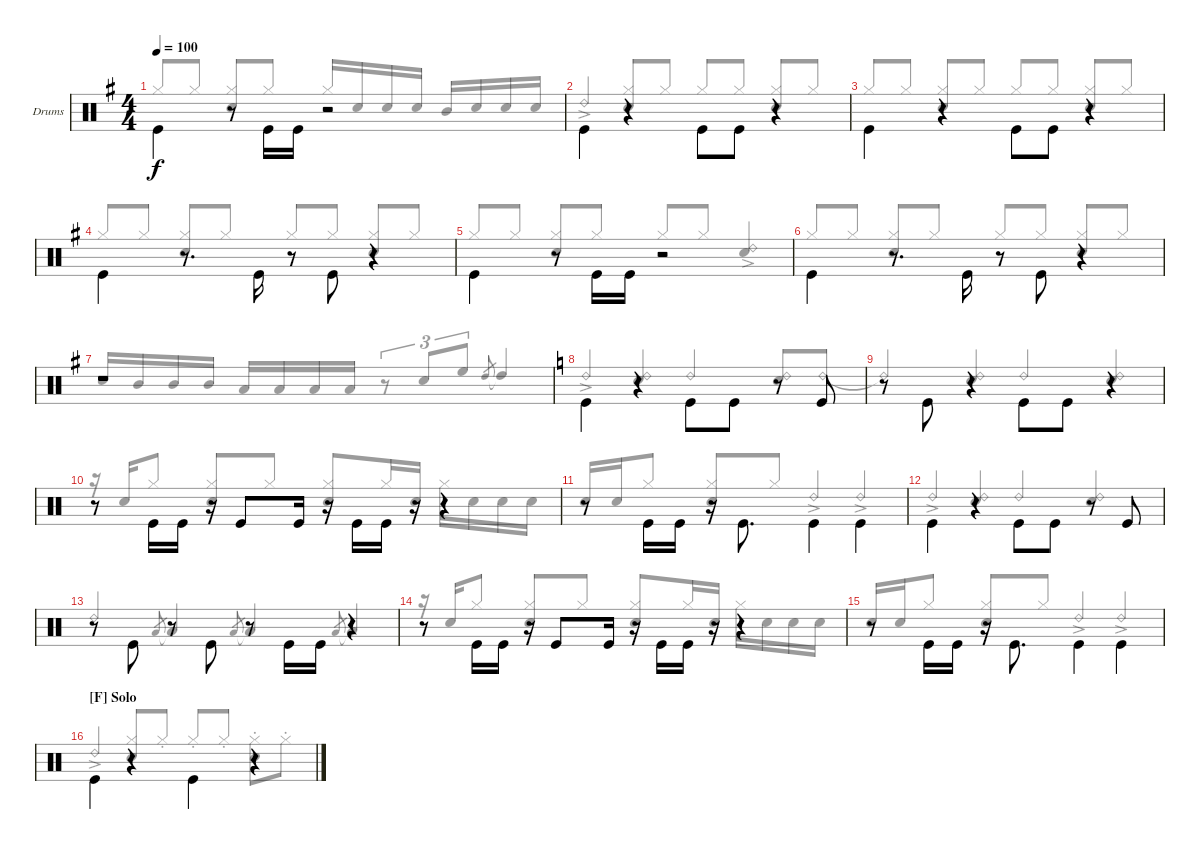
\defaultSystemsLayout 4
\bracketExtendMode groupsimilarinstruments
\firstSystemTrackNameOrientation horizontal
\otherSystemsTrackNameOrientation horizontal
\track ("Drumkit" "Drums") {instrument percussion}
\staff {score}
\articulation defaults
\voice
\ts (4 4)
\tempo 100
\clef neutral
\scale
1.02648
\ks g "Kick (hit)".4{dy f beam invert}
r.8 "Kick (hit)".16{beam invert} "Kick (hit)".16 r.2{beam invert} |
\scale
0.973518 "Kick (hit)".4{beam invert} r.4{beam invert} "Kick (hit)".8{beam invert} "Kick (hit)".8 r.4 |
\scale
1.02648 "Kick (hit)".4{beam invert} r.4{beam invert} "Kick (hit)".8{beam invert} "Kick (hit)".8 r.4 |
\scale
0.973518 "Kick (hit)".4{beam invert} r.8{d beam invert} "Kick (hit)".16{beam invert} r.8{beam invert} "Kick (hit)".8{beam invert} r.4{beam invert} |
\scale
1.02648 "Kick (hit)".4{beam invert} r.8 "Kick (hit)".16{beam invert} "Kick (hit)".16 r.2{beam invert} |
\scale
0.973518 "Kick (hit)".4{beam invert} r.8{d beam invert} "Kick (hit)".16{beam invert} r.8{beam invert} "Kick (hit)".8{beam invert} r.4{beam invert} |
\scale
1.02648 r.1 |
\scale
0.973518
\ks c "Kick (hit)".4{beam invert}
r.4 "Kick (hit)".8{beam invert} "Kick (hit)".8 r.8 "Kick (hit)".8 |
\scale
1.02648 r.8 "Kick (hit)".8{beam invert} r.4 "Kick (hit)".8{beam invert} "Kick (hit)".8 r.4 |
\scale
0.973518 r.8 "Kick (hit)".16{beam invert} "Kick (hit)".16 r.16 "Kick (hit)".8 "Kick (hit)".16 r.16 "Kick (hit)".16{beam invert} "Kick (hit)".16 r.16 r.4 |
\scale
1.02648 r.8 "Kick (hit)".16{beam invert} "Kick (hit)".16 r.16 "Kick (hit)".8{d} "Kick (hit)".4{beam invert} "Kick (hit)".4{beam invert} |
\scale
0.973518 "Kick (hit)".4{beam invert} r.4{beam invert} "Kick (hit)".8{beam invert} "Kick (hit)".8 r.8 "Kick (hit)".8 |
\scale
1.02648 r.8 "Kick (hit)".8{beam invert} r.8 "Kick (hit)".8 r.8{beam invert} "Kick (hit)".16{beam invert} "Kick (hit)".16 r.4 |
\scale
0.973518 r.8 "Kick (hit)".16{beam invert} "Kick (hit)".16 r.16 "Kick (hit)".8 "Kick (hit)".16 r.16 "Kick (hit)".16{beam invert} "Kick (hit)".16 r.16 r.4 |
\scale
1.02648 r.8 "Kick (hit)".16{beam invert} "Kick (hit)".16 r.16 "Kick (hit)".8{d} "Kick (hit)".4{beam invert} "Kick (hit)".4{beam invert} |
\section ("F" "Solo")
\scale
0.973518 "Kick (hit)".4{beam invert} r.4 "Kick (hit)".4{beam invert} r.4
\voice
\clef neutral
\ottava regular
\simile none
\scale
1.02648
\ks g "Hi-Hat (closed)".8{dy f beam invert} "Hi-Hat (closed)".8
("Hi-Hat (closed)" "Snare (hit) 2").8 "Hi-Hat (closed)".8{beam invert} "Hi-Hat (closed)".16{beam invert} "Snare (hit) 2".16 "Snare (hit) 2".16 "Snare (hit) 2".16 "Mid Tom (hit)".16{beam invert} "Snare (hit) 2".16 "Snare (hit) 2".16 "Snare (hit) 2".16 |
\scale
0.973518 "Ride (bell) 2"{ac}.4{beam invert} ("Hi-Hat (closed)" "Snare (hit) 2").8{beam invert} "Hi-Hat (closed)".8 "Hi-Hat (closed)".8{beam invert} "Hi-Hat (closed)".8 ("Hi-Hat (closed)" "Snare (hit) 2").8{beam invert} "Hi-Hat (closed)".8 |
\scale
1.02648 "Hi-Hat (closed)".8{beam invert} "Hi-Hat (closed)".8 ("Hi-Hat (closed)" "Snare (hit) 2").8 "Hi-Hat (closed)".8{beam invert} "Hi-Hat (closed)".8 "Hi-Hat (closed)".8{beam invert} ("Hi-Hat (closed)" "Snare (hit) 2").8 "Hi-Hat (closed)".8{beam invert} |
\scale
0.973518 "Hi-Hat (closed)".8{beam invert} "Hi-Hat (closed)".8 ("Hi-Hat (closed)" "Snare (hit) 2").8 "Hi-Hat (closed)".8{beam invert} "Hi-Hat (closed)".8 "Hi-Hat (closed)".8{beam invert} ("Hi-Hat (closed)" "Snare (hit) 2").8 "Hi-Hat (closed)".8{beam invert} |
\scale
1.02648 "Hi-Hat (closed)".8{beam invert} "Hi-Hat (closed)".8 ("Hi-Hat (closed)" "Snare (hit) 2").8 "Hi-Hat (closed)".8{beam invert} "Hi-Hat (closed)".8 "Hi-Hat (closed)".8{beam invert} ("Ride (bell) 2" "Snare (hit) 2"{ac}).4{beam invert} |
\scale
0.973518 "Hi-Hat (closed)".8{beam invert} "Hi-Hat (closed)".8 ("Hi-Hat (closed)" "Snare (hit) 2").8 "Hi-Hat (closed)".8{beam invert} "Hi-Hat (closed)".8 "Hi-Hat (closed)".8{beam invert} ("Hi-Hat (closed)" "Snare (hit) 2").8 "Hi-Hat (closed)".8{beam invert} |
\scale
1.02648 "Snare (hit) 2".16{beam invert} "Mid Tom (hit)".16 "Mid Tom (hit)".16 "Mid Tom (hit)".16 "Low Tom (hit)".16{beam invert} "Low Tom (hit)".16 "Low Tom (hit)".16 "Low Tom (hit)".16 r.8{tu (3 2) beam invert} "Snare (hit) 2".8{tu (3 2) beam invert} "High Floor Tom (hit)".8{tu (3 2)} "High Tom (hit)".8{gr beam invert} "High Tom (hit)"{t}.4{beam invert} |
\scale
0.973518
\ks c "Ride (bell) 2"{ac}.4{beam invert}
("Ride (bell) 2" "Snare (hit) 2").4{beam invert} "Ride (bell) 2".4{beam invert} ("Ride (bell) 2" "Snare (hit) 2").8{beam invert} "Ride (bell) 2".8 |
\scale
1.02648 "Ride (bell) 2"{t}.4{beam invert} ("Ride (bell) 2" "Snare (hit) 2").4{beam invert} "Ride (bell) 2".4{beam invert} ("Ride (bell) 2" "Snare (hit) 2").4{beam invert} |
\scale
0.973518 r.16 "Snare (hit) 2".16{beam invert} "Hi-Hat (closed)".8 ("Hi-Hat (closed)" "Snare (hit) 2").8 "Hi-Hat (closed)".8 ("Hi-Hat (closed)" "Snare (hit) 2").8{beam invert} "Hi-Hat (closed)".16 "Snare (hit) 2".16 "Hi-Hat (closed)".16 "Snare (hit) 2".16 "Snare (hit) 2".16 "Snare (hit) 2".16 |
\scale
1.02648 "Snare (hit) 2".16 "Snare (hit) 2".16 "Hi-Hat (closed)".8 ("Hi-Hat (closed)" "Snare (hit) 2").8{beam invert} "Hi-Hat (closed)".8 "Ride (bell) 2"{ac}.4{beam invert} "Ride (bell) 2"{ac}.4{beam invert} |
\scale
0.973518 "Ride (bell) 2"{ac}.4{beam invert} ("Ride (bell) 2" "Snare (hit) 2").4{beam invert} "Ride (bell) 2".4{beam invert} ("Ride (bell) 2" "Snare (hit) 2").4{beam invert} |
\scale
1.02648 "Ride (bell) 2".4{beam invert} "Low Tom (hit)".8{gr beam invert} "Low Tom (hit)"{t}.4{beam invert} "Low Tom (hit)".8{gr beam invert} "Low Tom (hit)"{t}.4{beam invert} "Low Tom (hit)".8{gr beam invert} "Low Tom (hit)"{t}.4{beam invert} |
\scale
0.973518 r.16 "Snare (hit) 2".16{beam invert} "Hi-Hat (closed)".8 ("Hi-Hat (closed)" "Snare (hit) 2").8 "Hi-Hat (closed)".8 ("Hi-Hat (closed)" "Snare (hit) 2").8{beam invert} "Hi-Hat (closed)".16 "Snare (hit) 2".16 "Hi-Hat (closed)".16 "Snare (hit) 2".16 "Snare (hit) 2".16 "Snare (hit) 2".16 |
\scale
1.02648 "Snare (hit) 2".16{beam invert} "Snare (hit) 2".16 "Hi-Hat (closed)".8 ("Hi-Hat (closed)" "Snare (hit) 2").8 "Hi-Hat (closed)".8 "Ride (bell) 2"{ac}.4{beam invert} "Ride (bell) 2"{ac}.4{beam invert} |
\scale
0.973518 "Ride (bell) 2"{ac}.4{beam invert} ("Snare (hit) 2"{st} "Hi-Hat (closed)"{st}).8{beam invert} "Hi-Hat (closed)"{st}.8 "Hi-Hat (closed)"{st}.8{beam invert} "Hi-Hat (closed)"{st}.8 ("Snare (hit) 2"{st} "Hi-Hat (closed)"{st}).8 "Hi-Hat (closed)"{st}.8
